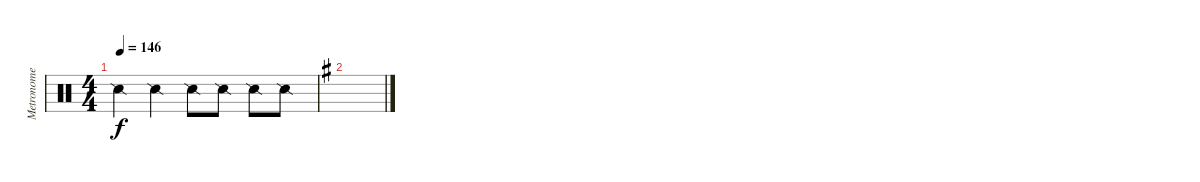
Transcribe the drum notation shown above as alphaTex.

\track ("Metronome" "Metronome") {instrument percussion}
\staff {score}
\articulation defaults
\ts (4 4)
\tempo 146
\clef neutral
\ks c "Snare (side stick) 2".4{dy f} "Snare (side stick) 2".4 "Snare (side stick) 2".8 "Snare (side stick) 2".8 "Snare (side stick) 2".8 "Snare (side stick) 2".8
|
\ks g
